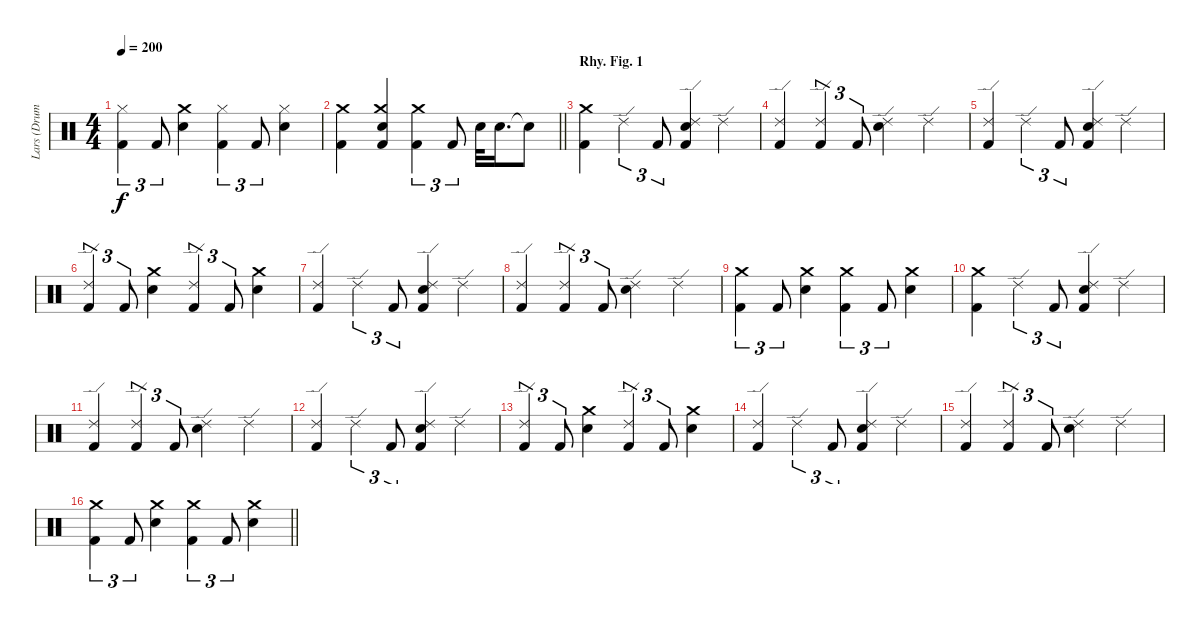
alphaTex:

\track ("Lars (Drums)" "Lars (Drum") {instrument percussion}
\staff {score}
\articulation defaults
\ts (4 4)
\tempo 200
\clef neutral
\ks c
("Kick (hit) 2" "Hi-Hat (closed)").4{tu (3 2) dy f} "Kick (hit) 2".8{tu (3 2)} ("Crash medium (hit)" "Snare (hit) 2").4 ("Kick (hit) 2" "Hi-Hat (closed)").4{tu (3 2)} "Kick (hit) 2".8{tu (3 2)} ("Snare (hit) 2" "Hi-Hat (closed)").4 |
\barLineRight lightlight
("Kick (hit) 2" "Crash medium (hit)").4 ("Kick (hit) 2" "Snare (hit) 2" "Crash medium (hit)").4 ("Kick (hit) 2" "Crash medium (hit)").4{tu (3 2)} "Kick (hit) 2".8{tu (3 2)} "Snare (hit) 2".32 "Snare (hit) 2".16{d} "Snare (hit)"{t}.8 |
\section ("" "Rhy. Fig. 1")
("Kick (hit) 2" "Crash medium (hit)").4 "Ride (edge) 2".4{tu (3 2)} "Kick (hit) 2".8{tu (3 2)} ("Kick (hit) 2" "Snare (hit) 2" "Ride (edge) 2").4 "Ride (edge) 2".4 |
("Kick (hit) 2" "Ride (edge) 2").4 ("Ride (edge) 2" "Kick (hit) 2").4{tu (3 2)} "Kick (hit) 2".8{tu (3 2)} ("Snare (hit) 2" "Ride (edge) 2").4 "Ride (edge) 2".4 |
("Kick (hit) 2" "Ride (edge) 2").4 "Ride (edge) 2".4{tu (3 2)} "Kick (hit) 2".8{tu (3 2)} ("Ride (edge) 2" "Snare (hit) 2" "Kick (hit) 2").4 "Ride (edge) 2".4 |
("Ride (edge) 2" "Kick (hit) 2").4{tu (3 2)} "Kick (hit) 2".8{tu (3 2)} ("Snare (hit) 2" "Crash medium (hit)").4 ("Ride (edge) 2" "Kick (hit) 2").4{tu (3 2)} "Kick (hit) 2".8{tu (3 2)} ("Snare (hit) 2" "Crash medium (hit)").4 |
("Ride (edge) 2" "Kick (hit) 2").4 "Ride (edge) 2".4{tu (3 2)} "Kick (hit) 2".8{tu (3 2)} ("Ride (edge) 2" "Snare (hit) 2" "Kick (hit) 2").4 "Ride (edge) 2".4 |
("Kick (hit) 2" "Ride (edge) 2").4 ("Ride (edge) 2" "Kick (hit) 2").4{tu (3 2)} "Kick (hit) 2".8{tu (3 2)} ("Snare (hit) 2" "Ride (edge) 2").4 "Ride (edge) 2".4 |
("Kick (hit) 2" "Crash medium (hit)").4{tu (3 2)} "Kick (hit) 2".8{tu (3 2)} ("Snare (hit) 2" "Crash medium (hit)").4 ("Kick (hit) 2" "Crash medium (hit)").4{tu (3 2)} "Kick (hit) 2".8{tu (3 2)} ("Snare (hit) 2" "Crash medium (hit)").4 |
("Kick (hit) 2" "Crash medium (hit)").4 "Ride (edge) 2".4{tu (3 2)} "Kick (hit) 2".8{tu (3 2)} ("Kick (hit) 2" "Snare (hit) 2" "Ride (edge) 2").4 "Ride (edge) 2".4 |
("Kick (hit) 2" "Ride (edge) 2").4 ("Ride (edge) 2" "Kick (hit) 2").4{tu (3 2)} "Kick (hit) 2".8{tu (3 2)} ("Snare (hit) 2" "Ride (edge) 2").4 "Ride (edge) 2".4 |
("Kick (hit) 2" "Ride (edge) 2").4 "Ride (edge) 2".4{tu (3 2)} "Kick (hit) 2".8{tu (3 2)} ("Ride (edge) 2" "Snare (hit) 2" "Kick (hit) 2").4 "Ride (edge) 2".4 |
("Ride (edge) 2" "Kick (hit) 2").4{tu (3 2)} "Kick (hit) 2".8{tu (3 2)} ("Snare (hit) 2" "Crash medium (hit)").4 ("Ride (edge) 2" "Kick (hit) 2").4{tu (3 2)} "Kick (hit) 2".8{tu (3 2)} ("Snare (hit) 2" "Crash medium (hit)").4 |
("Ride (edge) 2" "Kick (hit) 2").4 "Ride (edge) 2".4{tu (3 2)} "Kick (hit) 2".8{tu (3 2)} ("Ride (edge) 2" "Snare (hit) 2" "Kick (hit) 2").4 "Ride (edge) 2".4 |
("Kick (hit) 2" "Ride (edge) 2").4 ("Ride (edge) 2" "Kick (hit) 2").4{tu (3 2)} "Kick (hit) 2".8{tu (3 2)} ("Snare (hit) 2" "Ride (edge) 2").4 "Ride (edge) 2".4 |
\barLineRight lightlight
("Kick (hit) 2" "Crash medium (hit)").4{tu (3 2)} "Kick (hit) 2".8{tu (3 2)} ("Snare (hit) 2" "Crash medium (hit)").4 ("Kick (hit) 2" "Crash medium (hit)").4{tu (3 2)} "Kick (hit) 2".8{tu (3 2)} ("Snare (hit) 2" "Crash medium (hit)").4
